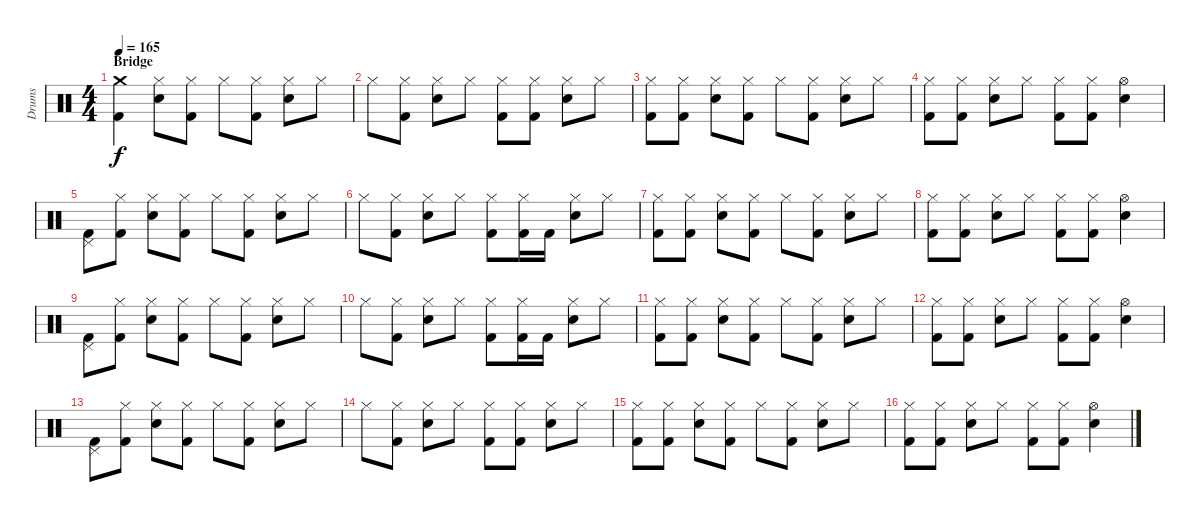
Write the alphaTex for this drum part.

\track ("Drums" "Drums") {instrument percussion}
\staff {score}
\articulation defaults
\ts (4 4)
\section ("" "Bridge")
\tempo 165
\clef neutral
\ks c
("Crash medium (hit)" "Kick (hit) 2").4{dy f} ("Hi-Hat (closed)" "Electric Snare (hit)").8 ("Hi-Hat (closed)" "Kick (hit) 2").8 "Hi-Hat (closed)".8 ("Hi-Hat (closed)" "Kick (hit) 2").8 ("Hi-Hat (closed)" "Electric Snare (hit)").8 "Hi-Hat (closed)".8 |
"Hi-Hat (closed)".8 ("Hi-Hat (closed)" "Kick (hit) 2").8 ("Hi-Hat (closed)" "Electric Snare (hit)").8 "Hi-Hat (closed)".8 ("Hi-Hat (closed)" "Kick (hit) 2").8 ("Hi-Hat (closed)" "Kick (hit) 2").8 ("Hi-Hat (closed)" "Electric Snare (hit)").8 "Hi-Hat (closed)".8 |
("Hi-Hat (closed)" "Kick (hit) 2").8 ("Hi-Hat (closed)" "Kick (hit) 2").8 ("Hi-Hat (closed)" "Electric Snare (hit)").8 ("Hi-Hat (closed)" "Kick (hit) 2").8 "Hi-Hat (closed)".8 ("Hi-Hat (closed)" "Kick (hit) 2").8 ("Hi-Hat (closed)" "Electric Snare (hit)").8 "Hi-Hat (closed)".8 |
("Hi-Hat (closed)" "Kick (hit) 2").8 ("Hi-Hat (closed)" "Kick (hit) 2").8 ("Hi-Hat (closed)" "Electric Snare (hit)").8 "Hi-Hat (closed)".8 ("Hi-Hat (closed)" "Kick (hit) 2").8 ("Hi-Hat (closed)" "Kick (hit) 2").8 ("Hi-Hat (open)" "Electric Snare (hit)").4 |
("Pedal Hi-Hat (hit)" "Kick (hit) 2").8 ("Hi-Hat (closed)" "Kick (hit) 2").8 ("Hi-Hat (closed)" "Electric Snare (hit)").8 ("Hi-Hat (closed)" "Kick (hit) 2").8 "Hi-Hat (closed)".8 ("Hi-Hat (closed)" "Kick (hit) 2").8 ("Hi-Hat (closed)" "Electric Snare (hit)").8 "Hi-Hat (closed)".8 |
"Hi-Hat (closed)".8 ("Hi-Hat (closed)" "Kick (hit) 2").8 ("Hi-Hat (closed)" "Electric Snare (hit)").8 "Hi-Hat (closed)".8 ("Hi-Hat (closed)" "Kick (hit) 2").8 ("Hi-Hat (closed)" "Kick (hit) 2").16 "Kick (hit) 2".16 ("Hi-Hat (closed)" "Electric Snare (hit)").8 "Hi-Hat (closed)".8 |
("Hi-Hat (closed)" "Kick (hit) 2").8 ("Hi-Hat (closed)" "Kick (hit) 2").8 ("Hi-Hat (closed)" "Electric Snare (hit)").8 ("Hi-Hat (closed)" "Kick (hit) 2").8 "Hi-Hat (closed)".8 ("Hi-Hat (closed)" "Kick (hit) 2").8 ("Hi-Hat (closed)" "Electric Snare (hit)").8 "Hi-Hat (closed)".8 |
("Hi-Hat (closed)" "Kick (hit) 2").8 ("Hi-Hat (closed)" "Kick (hit) 2").8 ("Hi-Hat (closed)" "Electric Snare (hit)").8 "Hi-Hat (closed)".8 ("Hi-Hat (closed)" "Kick (hit) 2").8 ("Hi-Hat (closed)" "Kick (hit) 2").8 ("Hi-Hat (open)" "Electric Snare (hit)").4 |
("Pedal Hi-Hat (hit)" "Kick (hit) 2").8 ("Hi-Hat (closed)" "Kick (hit) 2").8 ("Hi-Hat (closed)" "Electric Snare (hit)").8 ("Hi-Hat (closed)" "Kick (hit) 2").8 "Hi-Hat (closed)".8 ("Hi-Hat (closed)" "Kick (hit) 2").8 ("Hi-Hat (closed)" "Electric Snare (hit)").8 "Hi-Hat (closed)".8 |
"Hi-Hat (closed)".8 ("Hi-Hat (closed)" "Kick (hit) 2").8 ("Hi-Hat (closed)" "Electric Snare (hit)").8 "Hi-Hat (closed)".8 ("Hi-Hat (closed)" "Kick (hit) 2").8 ("Hi-Hat (closed)" "Kick (hit) 2").16 "Kick (hit) 2".16 ("Hi-Hat (closed)" "Electric Snare (hit)").8 "Hi-Hat (closed)".8 |
("Hi-Hat (closed)" "Kick (hit) 2").8 ("Hi-Hat (closed)" "Kick (hit) 2").8 ("Hi-Hat (closed)" "Electric Snare (hit)").8 ("Hi-Hat (closed)" "Kick (hit) 2").8 "Hi-Hat (closed)".8 ("Hi-Hat (closed)" "Kick (hit) 2").8 ("Hi-Hat (closed)" "Electric Snare (hit)").8 "Hi-Hat (closed)".8 |
("Hi-Hat (closed)" "Kick (hit) 2").8 ("Hi-Hat (closed)" "Kick (hit) 2").8 ("Hi-Hat (closed)" "Electric Snare (hit)").8 "Hi-Hat (closed)".8 ("Hi-Hat (closed)" "Kick (hit) 2").8 ("Hi-Hat (closed)" "Kick (hit) 2").8 ("Hi-Hat (open)" "Electric Snare (hit)").4 |
("Pedal Hi-Hat (hit)" "Kick (hit) 2").8 ("Hi-Hat (closed)" "Kick (hit) 2").8 ("Hi-Hat (closed)" "Electric Snare (hit)").8 ("Hi-Hat (closed)" "Kick (hit) 2").8 "Hi-Hat (closed)".8 ("Hi-Hat (closed)" "Kick (hit) 2").8 ("Hi-Hat (closed)" "Electric Snare (hit)").8 "Hi-Hat (closed)".8 |
"Hi-Hat (closed)".8 ("Hi-Hat (closed)" "Kick (hit) 2").8 ("Hi-Hat (closed)" "Electric Snare (hit)").8 "Hi-Hat (closed)".8 ("Hi-Hat (closed)" "Kick (hit) 2").8 ("Hi-Hat (closed)" "Kick (hit) 2").8 ("Hi-Hat (closed)" "Electric Snare (hit)").8 "Hi-Hat (closed)".8 |
("Hi-Hat (closed)" "Kick (hit) 2").8 ("Hi-Hat (closed)" "Kick (hit) 2").8 ("Hi-Hat (closed)" "Electric Snare (hit)").8 ("Hi-Hat (closed)" "Kick (hit) 2").8 "Hi-Hat (closed)".8 ("Hi-Hat (closed)" "Kick (hit) 2").8 ("Hi-Hat (closed)" "Electric Snare (hit)").8 "Hi-Hat (closed)".8 |
("Hi-Hat (closed)" "Kick (hit) 2").8 ("Hi-Hat (closed)" "Kick (hit) 2").8 ("Hi-Hat (closed)" "Electric Snare (hit)").8 "Hi-Hat (closed)".8 ("Hi-Hat (closed)" "Kick (hit) 2").8 ("Hi-Hat (closed)" "Kick (hit) 2").8 ("Hi-Hat (open)" "Electric Snare (hit)").4
